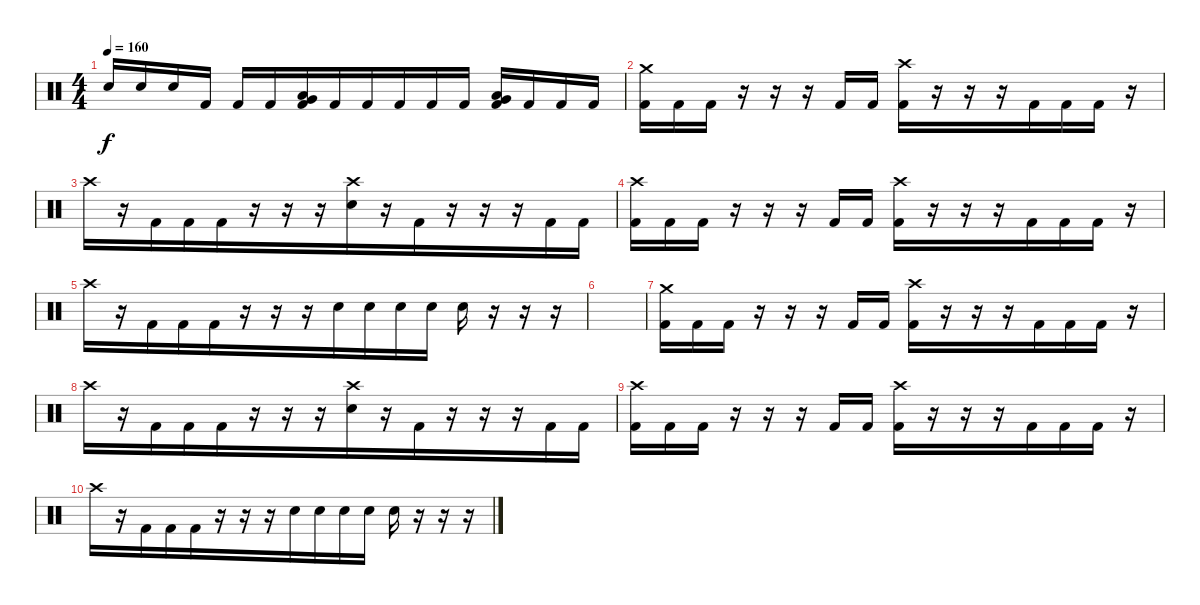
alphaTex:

\track "" {instrument percussion}
\staff {score}
\articulation defaults
\ts (4 4)
\tempo 160
\clef neutral
\ks c "Electric Snare (hit)".16{dy f} "Electric Snare (hit)".16 "Electric Snare (hit)".16{beam merge} "Kick (hit) 2".16 "Kick (hit) 2".16 "Kick (hit) 2".16
("Very Low Tom (hit)" "Low Floor Tom (hit)" "Kick (hit) 2").16 "Kick (hit) 2".16{beam merge} "Kick (hit) 2".16 "Kick (hit) 2".16{beam merge} "Kick (hit) 2".16 "Kick (hit) 2".16 ("Very Low Tom (hit)" "Low Floor Tom (hit)" "Kick (hit) 2").16 "Kick (hit) 2".16 "Kick (hit) 2".16{beam merge} "Kick (hit) 2".16 |
("Crash medium (hit)" "Kick (hit) 2").16{beam merge} "Kick (hit) 2".16 "Kick (hit) 2".16 r.16{beam merge} r.16{beam merge} r.16{beam merge} "Kick (hit) 2".16 "Kick (hit) 2".16 ("Crash high (hit)" "Kick (hit) 2").16{beam merge} r.16 r.16{beam merge} r.16 "Kick (hit) 2".16 "Kick (hit) 2".16 "Kick (hit) 2".16{beam merge} r.16 |
"Crash high (hit)".16{beam merge} r.16 "Kick (hit) 2".16 "Kick (hit) 2".16{beam merge} "Kick (hit) 2".16{beam merge} r.16{beam merge} r.16 r.16 ("Crash high (hit)" "Electric Snare (hit)").16{beam merge} r.16 "Kick (hit) 2".16{beam merge} r.16 r.16 r.16 "Kick (hit) 2".16 "Kick (hit) 2".16 |
("Crash high (hit)" "Kick (hit) 2").16{beam merge} "Kick (hit) 2".16 "Kick (hit) 2".16 r.16{beam merge} r.16{beam merge} r.16{beam merge} "Kick (hit) 2".16 "Kick (hit) 2".16 ("Crash high (hit)" "Kick (hit) 2").16{beam merge} r.16 r.16{beam merge} r.16 "Kick (hit) 2".16 "Kick (hit) 2".16 "Kick (hit) 2".16{beam merge} r.16 |
"Crash high (hit)".16{beam merge} r.16 "Kick (hit) 2".16 "Kick (hit) 2".16{beam merge} "Kick (hit) 2".16{beam merge} r.16{beam merge} r.16 r.16 "Electric Snare (hit)".16{beam merge} "Electric Snare (hit)".16 "Electric Snare (hit)".16{beam merge} "Electric Snare (hit)".16 "Electric Snare (hit)".16 r.16 r.16 r.16 |
|
("Crash medium (hit)" "Kick (hit) 2").16{beam merge} "Kick (hit) 2".16 "Kick (hit) 2".16 r.16{beam merge} r.16{beam merge} r.16{beam merge} "Kick (hit) 2".16 "Kick (hit) 2".16 ("Crash high (hit)" "Kick (hit) 2").16{beam merge} r.16 r.16{beam merge} r.16 "Kick (hit) 2".16 "Kick (hit) 2".16 "Kick (hit) 2".16{beam merge} r.16 |
"Crash high (hit)".16{beam merge} r.16 "Kick (hit) 2".16 "Kick (hit) 2".16{beam merge} "Kick (hit) 2".16{beam merge} r.16{beam merge} r.16 r.16 ("Crash high (hit)" "Electric Snare (hit)").16{beam merge} r.16 "Kick (hit) 2".16{beam merge} r.16 r.16 r.16 "Kick (hit) 2".16 "Kick (hit) 2".16 |
("Crash high (hit)" "Kick (hit) 2").16{beam merge} "Kick (hit) 2".16 "Kick (hit) 2".16 r.16{beam merge} r.16{beam merge} r.16{beam merge} "Kick (hit) 2".16 "Kick (hit) 2".16 ("Crash high (hit)" "Kick (hit) 2").16{beam merge} r.16 r.16{beam merge} r.16 "Kick (hit) 2".16 "Kick (hit) 2".16 "Kick (hit) 2".16{beam merge} r.16 |
"Crash high (hit)".16{beam merge} r.16 "Kick (hit) 2".16 "Kick (hit) 2".16{beam merge} "Kick (hit) 2".16{beam merge} r.16{beam merge} r.16 r.16 "Electric Snare (hit)".16{beam merge} "Electric Snare (hit)".16 "Electric Snare (hit)".16{beam merge} "Electric Snare (hit)".16 "Electric Snare (hit)".16 r.16 r.16 r.16
